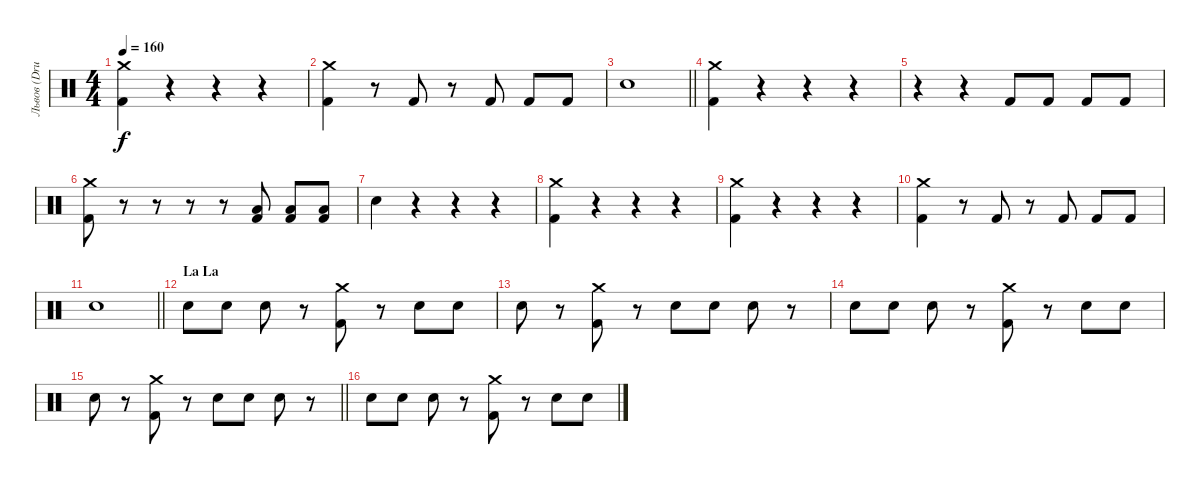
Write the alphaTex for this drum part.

\track ("Львов (Drums)" "Львов (Dru") {instrument percussion}
\staff {score}
\articulation defaults
\ts (4 4)
\tempo 160
\clef neutral
\ks c
("Kick (hit) 2" "Crash medium (hit)").4{dy f} r.4 r.4 r.4 |
("Kick (hit) 2" "Crash medium (hit)").4 r.8 "Kick (hit) 2".8 r.8 "Kick (hit) 2".8 "Kick (hit) 2".8 "Kick (hit) 2".8 |
\barLineRight lightlight "Snare (hit) 2".1
|
("Kick (hit) 2" "Crash medium (hit)").4 r.4 r.4 r.4 |
r.4 r.4 "Kick (hit) 2".8 "Kick (hit) 2".8 "Kick (hit) 2".8 "Kick (hit) 2".8 |
("Kick (hit) 2" "Crash medium (hit)").8 r.8 r.8 r.8 r.8 ("Kick (hit) 2" "Low Floor Tom (hit)").8 ("Kick (hit) 2" "Low Floor Tom (hit)").8 ("Kick (hit) 2" "Low Floor Tom (hit)").8 |
"Snare (hit) 2".4 r.4 r.4 r.4 |
("Kick (hit) 2" "Crash medium (hit)").4 r.4 r.4 r.4 |
("Kick (hit) 2" "Crash medium (hit)").4 r.4 r.4 r.4 |
("Kick (hit) 2" "Crash medium (hit)").4 r.8 "Kick (hit) 2".8 r.8 "Kick (hit) 2".8 "Kick (hit) 2".8 "Kick (hit) 2".8 |
\barLineRight lightlight "Snare (hit) 2".1
|
\section ("" "La La")
"Electric Snare (hit)".8 "Electric Snare (hit)".8 "Electric Snare (hit)".8 r.8 ("Kick (hit) 2" "Crash medium (hit)").8 r.8 "Electric Snare (hit)".8 "Electric Snare (hit)".8 |
"Electric Snare (hit)".8 r.8 ("Kick (hit) 2" "Crash medium (hit)").8 r.8 "Electric Snare (hit)".8 "Electric Snare (hit)".8 "Electric Snare (hit)".8 r.8 |
"Electric Snare (hit)".8 "Electric Snare (hit)".8 "Electric Snare (hit)".8 r.8 ("Kick (hit) 2" "Crash medium (hit)").8 r.8 "Electric Snare (hit)".8 "Electric Snare (hit)".8 |
\barLineRight lightlight "Electric Snare (hit)".8
r.8 ("Kick (hit) 2" "Crash medium (hit)").8 r.8 "Electric Snare (hit)".8 "Electric Snare (hit)".8 "Electric Snare (hit)".8 r.8 |
"Electric Snare (hit)".8 "Electric Snare (hit)".8 "Electric Snare (hit)".8 r.8 ("Kick (hit) 2" "Crash medium (hit)").8 r.8 "Electric Snare (hit)".8 "Electric Snare (hit)".8
